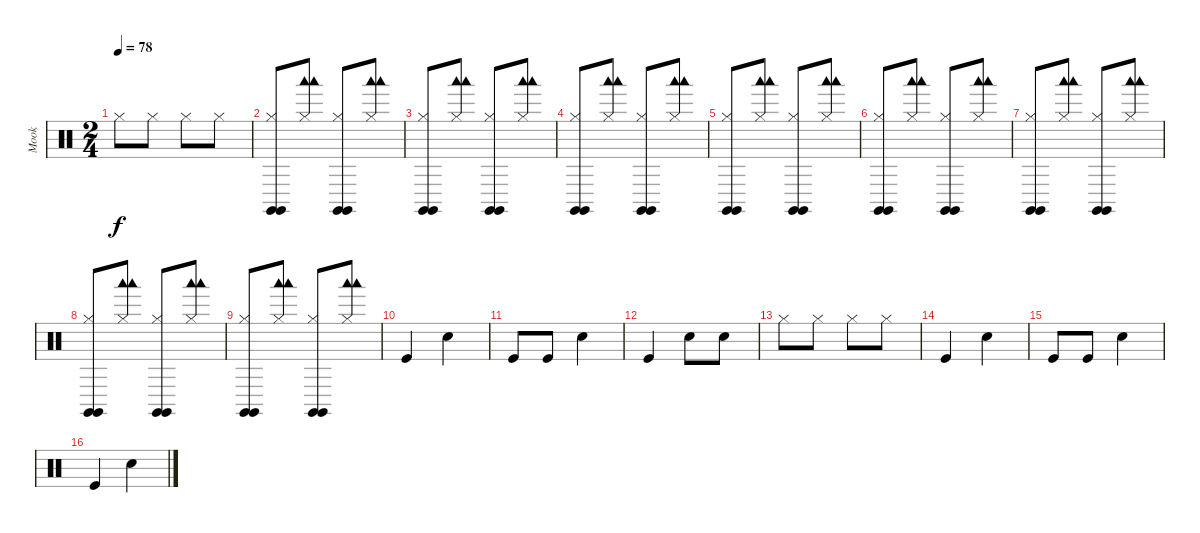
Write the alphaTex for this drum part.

\track ("Mook" "Mook") {instrument percussion}
\staff {score}
\articulation defaults
\ts (2 4)
\tempo 78
\clef neutral
\ks c "Hi-Hat (closed)".8{dy f} "Hi-Hat (closed)".8 "Hi-Hat (closed)".8 "Hi-Hat (closed)".8
|
("Hi-Hat (closed)" "Claves (hit)" "Claves (hit)").8 ("Hi-Hat (closed)" "Woodblock low (hit)" "Woodblock low (hit)").8 ("Hi-Hat (closed)" "Claves (hit)" "Claves (hit)").8 ("Hi-Hat (closed)" "Woodblock low (hit)" "Woodblock low (hit)").8 |
("Hi-Hat (closed)" "Claves (hit)" "Claves (hit)").8 ("Hi-Hat (closed)" "Woodblock low (hit)" "Woodblock low (hit)").8 ("Hi-Hat (closed)" "Claves (hit)" "Claves (hit)").8 ("Hi-Hat (closed)" "Woodblock low (hit)" "Woodblock low (hit)").8 |
("Hi-Hat (closed)" "Claves (hit)" "Claves (hit)").8 ("Hi-Hat (closed)" "Woodblock low (hit)" "Woodblock low (hit)").8 ("Hi-Hat (closed)" "Claves (hit)" "Claves (hit)").8 ("Hi-Hat (closed)" "Woodblock low (hit)" "Woodblock low (hit)").8 |
("Hi-Hat (closed)" "Claves (hit)" "Claves (hit)").8 ("Hi-Hat (closed)" "Woodblock low (hit)" "Woodblock low (hit)").8 ("Hi-Hat (closed)" "Claves (hit)" "Claves (hit)").8 ("Hi-Hat (closed)" "Woodblock low (hit)" "Woodblock low (hit)").8 |
("Hi-Hat (closed)" "Claves (hit)" "Claves (hit)").8 ("Hi-Hat (closed)" "Woodblock low (hit)" "Woodblock low (hit)").8 ("Hi-Hat (closed)" "Claves (hit)" "Claves (hit)").8 ("Hi-Hat (closed)" "Woodblock low (hit)" "Woodblock low (hit)").8 |
("Hi-Hat (closed)" "Claves (hit)" "Claves (hit)").8 ("Hi-Hat (closed)" "Woodblock low (hit)" "Woodblock low (hit)").8 ("Hi-Hat (closed)" "Claves (hit)" "Claves (hit)").8 ("Hi-Hat (closed)" "Woodblock low (hit)" "Woodblock low (hit)").8 |
("Hi-Hat (closed)" "Claves (hit)" "Claves (hit)").8 ("Hi-Hat (closed)" "Woodblock low (hit)" "Woodblock low (hit)").8 ("Hi-Hat (closed)" "Claves (hit)" "Claves (hit)").8 ("Hi-Hat (closed)" "Woodblock low (hit)" "Woodblock low (hit)").8 |
("Hi-Hat (closed)" "Claves (hit)" "Claves (hit)").8 ("Hi-Hat (closed)" "Woodblock low (hit)" "Woodblock low (hit)").8 ("Hi-Hat (closed)" "Claves (hit)" "Claves (hit)").8 ("Hi-Hat (closed)" "Woodblock low (hit)" "Woodblock low (hit)").8 |
"Kick (hit)".4 "Snare (hit) 2".4 |
"Kick (hit)".8 "Kick (hit)".8 "Snare (hit) 2".4 |
"Kick (hit)".4 "Snare (hit) 2".8 "Snare (hit) 2".8 |
"Hi-Hat (closed)".8 "Hi-Hat (closed)".8 "Hi-Hat (closed)".8 "Hi-Hat (closed)".8 |
"Kick (hit)".4 "Metronome (bell)".4 |
"Kick (hit)".8 "Kick (hit)".8 "Metronome (bell)".4 |
"Kick (hit)".4 "Metronome (bell)".4
